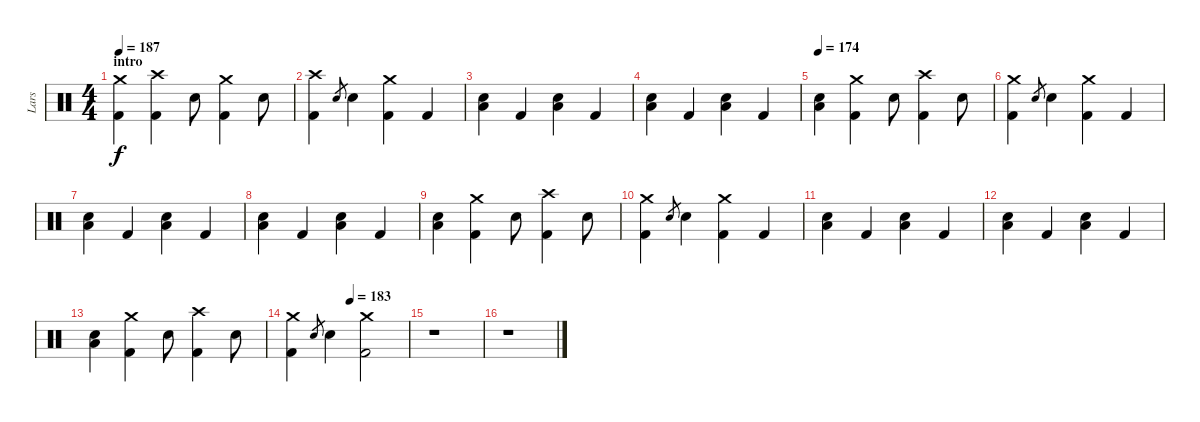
\track ("Lars" "Lars") {instrument percussion}
\staff {score}
\articulation defaults
\ts (4 4)
\section ("" "intro")
\tempo 187
\clef neutral
\ks c
("Crash medium (hit)" "Kick (hit) 2").4{dy f} ("Crash high (hit)" "Kick (hit) 2").4 "Snare (hit) 2".8 ("Crash medium (hit)" "Kick (hit) 2").4 "Snare (hit) 2".8 |
("Crash high (hit)" "Kick (hit) 2").4 "Snare (hit) 2".8{gr} "Snare (hit) 2".4 ("Crash medium (hit)" "Kick (hit) 2").4 "Kick (hit) 2".4 |
("Snare (hit) 2" "Low Floor Tom (hit)").4 "Kick (hit) 2".4 ("Snare (hit) 2" "Low Floor Tom (hit)").4 "Kick (hit) 2".4 |
("Snare (hit) 2" "Low Floor Tom (hit)").4 "Kick (hit) 2".4 ("Snare (hit) 2" "Low Floor Tom (hit)").4 "Kick (hit) 2".4 |
\tempo 174
("Snare (hit) 2" "Low Floor Tom (hit)").4 ("Crash medium (hit)" "Kick (hit) 2").4 "Snare (hit) 2".8 ("Crash high (hit)" "Kick (hit) 2").4 "Snare (hit) 2".8 |
("Crash medium (hit)" "Kick (hit) 2").4 "Snare (hit) 2".8{gr} "Snare (hit) 2".4 ("Crash medium (hit)" "Kick (hit) 2").4 "Kick (hit) 2".4 |
("Snare (hit) 2" "Low Floor Tom (hit)").4 "Kick (hit) 2".4 ("Snare (hit) 2" "Low Floor Tom (hit)").4 "Kick (hit) 2".4 |
("Snare (hit) 2" "Low Floor Tom (hit)").4 "Kick (hit) 2".4 ("Snare (hit) 2" "Low Floor Tom (hit)").4 "Kick (hit) 2".4 |
("Snare (hit) 2" "Low Floor Tom (hit)").4 ("Crash medium (hit)" "Kick (hit) 2").4 "Snare (hit) 2".8 ("Crash high (hit)" "Kick (hit) 2").4 "Snare (hit) 2".8 |
("Crash medium (hit)" "Kick (hit) 2").4 "Snare (hit) 2".8{gr} "Snare (hit) 2".4 ("Crash medium (hit)" "Kick (hit) 2").4 "Kick (hit) 2".4 |
("Snare (hit) 2" "Low Floor Tom (hit)").4 "Kick (hit) 2".4 ("Snare (hit) 2" "Low Floor Tom (hit)").4 "Kick (hit) 2".4 |
("Snare (hit) 2" "Low Floor Tom (hit)").4 "Kick (hit) 2".4 ("Snare (hit) 2" "Low Floor Tom (hit)").4 "Kick (hit) 2".4 |
("Snare (hit) 2" "Low Floor Tom (hit)").4 ("Crash medium (hit)" "Kick (hit) 2").4 "Snare (hit) 2".8 ("Crash high (hit)" "Kick (hit) 2").4 "Snare (hit) 2".8 |
\tempo (183 0.5)
("Crash medium (hit)" "Kick (hit) 2").4 "Snare (hit) 2".8{gr} "Snare (hit) 2".4 ("Crash medium (hit)" "Kick (hit) 2").2 |
r.1 |
r.1
